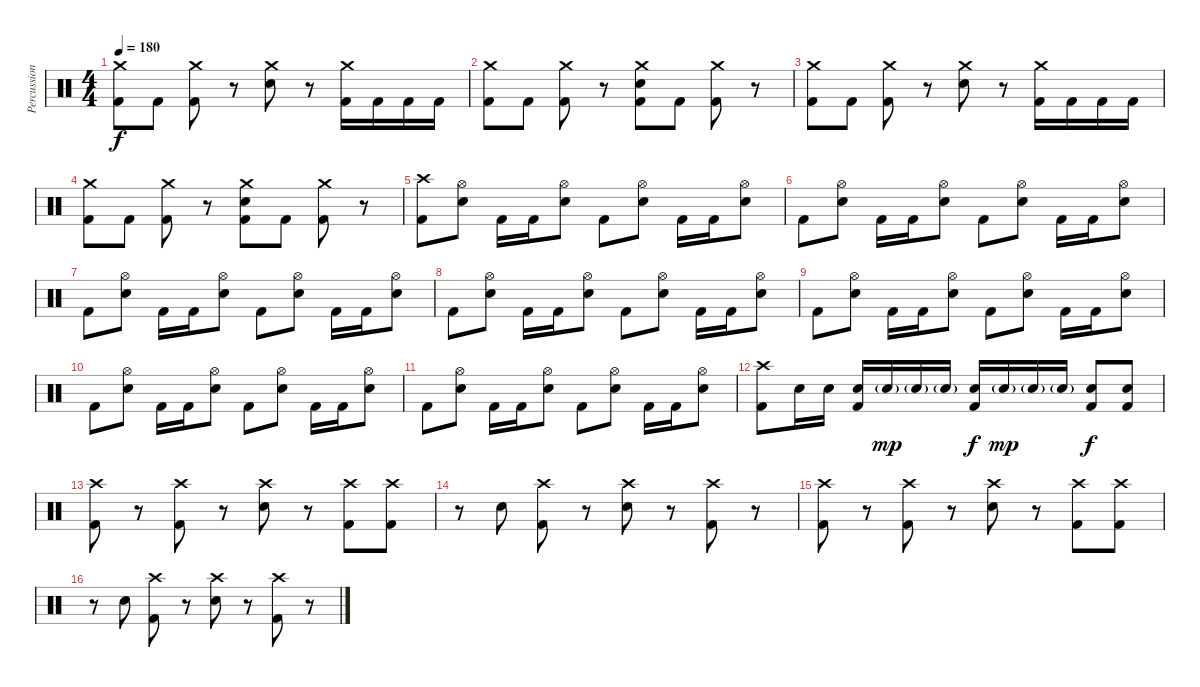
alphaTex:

\track ("Percussion" "Percussion") {instrument percussion}
\staff {score}
\articulation defaults
\ts (4 4)
\tempo 180
\clef neutral
\ks c
("Crash medium (hit)" "Kick (hit) 2").8{dy f} "Kick (hit) 2".8 ("Crash medium (hit)" "Kick (hit) 2").8 r.8 ("Crash medium (hit)" "Electric Snare (hit)").8 r.8 ("Crash medium (hit)" "Kick (hit) 2").16 "Kick (hit) 2".16 "Kick (hit) 2".16 "Kick (hit) 2".16 |
("Crash medium (hit)" "Kick (hit) 2").8 "Kick (hit) 2".8 ("Crash medium (hit)" "Kick (hit) 2").8 r.8 ("Crash medium (hit)" "Electric Snare (hit)" "Kick (hit) 2").8 "Kick (hit) 2".8 ("Crash medium (hit)" "Kick (hit) 2").8 r.8 |
("Crash medium (hit)" "Kick (hit) 2").8 "Kick (hit) 2".8 ("Crash medium (hit)" "Kick (hit) 2").8 r.8 ("Crash medium (hit)" "Electric Snare (hit)").8 r.8 ("Crash medium (hit)" "Kick (hit) 2").16 "Kick (hit) 2".16 "Kick (hit) 2".16 "Kick (hit) 2".16 |
("Crash medium (hit)" "Kick (hit) 2").8 "Kick (hit) 2".8 ("Crash medium (hit)" "Kick (hit) 2").8 r.8 ("Crash medium (hit)" "Electric Snare (hit)" "Kick (hit) 2").8 "Kick (hit) 2".8 ("Crash medium (hit)" "Kick (hit) 2").8 r.8 |
("Crash high (hit)" "Kick (hit) 2").8 ("Hi-Hat (open)" "Electric Snare (hit)").8 "Kick (hit) 2".16 "Kick (hit) 2".16 ("Hi-Hat (open)" "Electric Snare (hit)").8 "Kick (hit) 2".8 ("Hi-Hat (open)" "Electric Snare (hit)").8 "Kick (hit) 2".16 "Kick (hit) 2".16 ("Hi-Hat (open)" "Electric Snare (hit)").8 |
"Kick (hit) 2".8 ("Hi-Hat (open)" "Electric Snare (hit)").8 "Kick (hit) 2".16 "Kick (hit) 2".16 ("Hi-Hat (open)" "Electric Snare (hit)").8 "Kick (hit) 2".8 ("Hi-Hat (open)" "Electric Snare (hit)").8 "Kick (hit) 2".16 "Kick (hit) 2".16 ("Hi-Hat (open)" "Electric Snare (hit)").8 |
"Kick (hit) 2".8 ("Hi-Hat (open)" "Electric Snare (hit)").8 "Kick (hit) 2".16 "Kick (hit) 2".16 ("Hi-Hat (open)" "Electric Snare (hit)").8 "Kick (hit) 2".8 ("Hi-Hat (open)" "Electric Snare (hit)").8 "Kick (hit) 2".16 "Kick (hit) 2".16 ("Hi-Hat (open)" "Electric Snare (hit)").8 |
"Kick (hit) 2".8 ("Hi-Hat (open)" "Electric Snare (hit)").8 "Kick (hit) 2".16 "Kick (hit) 2".16 ("Hi-Hat (open)" "Electric Snare (hit)").8 "Kick (hit) 2".8 ("Hi-Hat (open)" "Electric Snare (hit)").8 "Kick (hit) 2".16 "Kick (hit) 2".16 ("Hi-Hat (open)" "Electric Snare (hit)").8 |
"Kick (hit) 2".8 ("Hi-Hat (open)" "Electric Snare (hit)").8 "Kick (hit) 2".16 "Kick (hit) 2".16 ("Hi-Hat (open)" "Electric Snare (hit)").8 "Kick (hit) 2".8 ("Hi-Hat (open)" "Electric Snare (hit)").8 "Kick (hit) 2".16 "Kick (hit) 2".16 ("Hi-Hat (open)" "Electric Snare (hit)").8 |
"Kick (hit) 2".8 ("Hi-Hat (open)" "Electric Snare (hit)").8 "Kick (hit) 2".16 "Kick (hit) 2".16 ("Hi-Hat (open)" "Electric Snare (hit)").8 "Kick (hit) 2".8 ("Hi-Hat (open)" "Electric Snare (hit)").8 "Kick (hit) 2".16 "Kick (hit) 2".16 ("Hi-Hat (open)" "Electric Snare (hit)").8 |
"Kick (hit) 2".8 ("Hi-Hat (open)" "Electric Snare (hit)").8 "Kick (hit) 2".16 "Kick (hit) 2".16 ("Hi-Hat (open)" "Electric Snare (hit)").8 "Kick (hit) 2".8 ("Hi-Hat (open)" "Electric Snare (hit)").8 "Kick (hit) 2".16 "Kick (hit) 2".16 ("Hi-Hat (open)" "Electric Snare (hit)").8 |
("Crash high (hit)" "Kick (hit) 2").8 "Electric Snare (hit)".16 "Electric Snare (hit)".16 ("Electric Snare (hit)" "Kick (hit) 2").16 "Electric Snare (hit)"{g}.16{dy mp} "Electric Snare (hit)"{g}.16 "Electric Snare (hit)"{g}.16 ("Electric Snare (hit)" "Kick (hit) 2").16{dy f} "Electric Snare (hit)"{g}.16{dy mp} "Electric Snare (hit)"{g}.16 "Electric Snare (hit)"{g}.16 ("Electric Snare (hit)" "Kick (hit) 2").8{dy f} ("Electric Snare (hit)" "Kick (hit) 2").8 |
("Crash high (hit)" "Kick (hit) 2").8 r.8 ("Crash high (hit)" "Kick (hit) 2").8 r.8 ("Crash high (hit)" "Electric Snare (hit)").8 r.8 ("Crash high (hit)" "Kick (hit) 2").8 ("Crash high (hit)" "Kick (hit) 2").8 |
r.8 "Electric Snare (hit)".8 ("Crash high (hit)" "Kick (hit) 2").8 r.8 ("Crash high (hit)" "Electric Snare (hit)").8 r.8 ("Crash high (hit)" "Kick (hit) 2").8 r.8 |
("Crash high (hit)" "Kick (hit) 2").8 r.8 ("Crash high (hit)" "Kick (hit) 2").8 r.8 ("Crash high (hit)" "Electric Snare (hit)").8 r.8 ("Crash high (hit)" "Kick (hit) 2").8 ("Crash high (hit)" "Kick (hit) 2").8 |
r.8 "Electric Snare (hit)".8 ("Crash high (hit)" "Kick (hit) 2").8 r.8 ("Crash high (hit)" "Electric Snare (hit)").8 r.8 ("Crash high (hit)" "Kick (hit) 2").8 r.8
